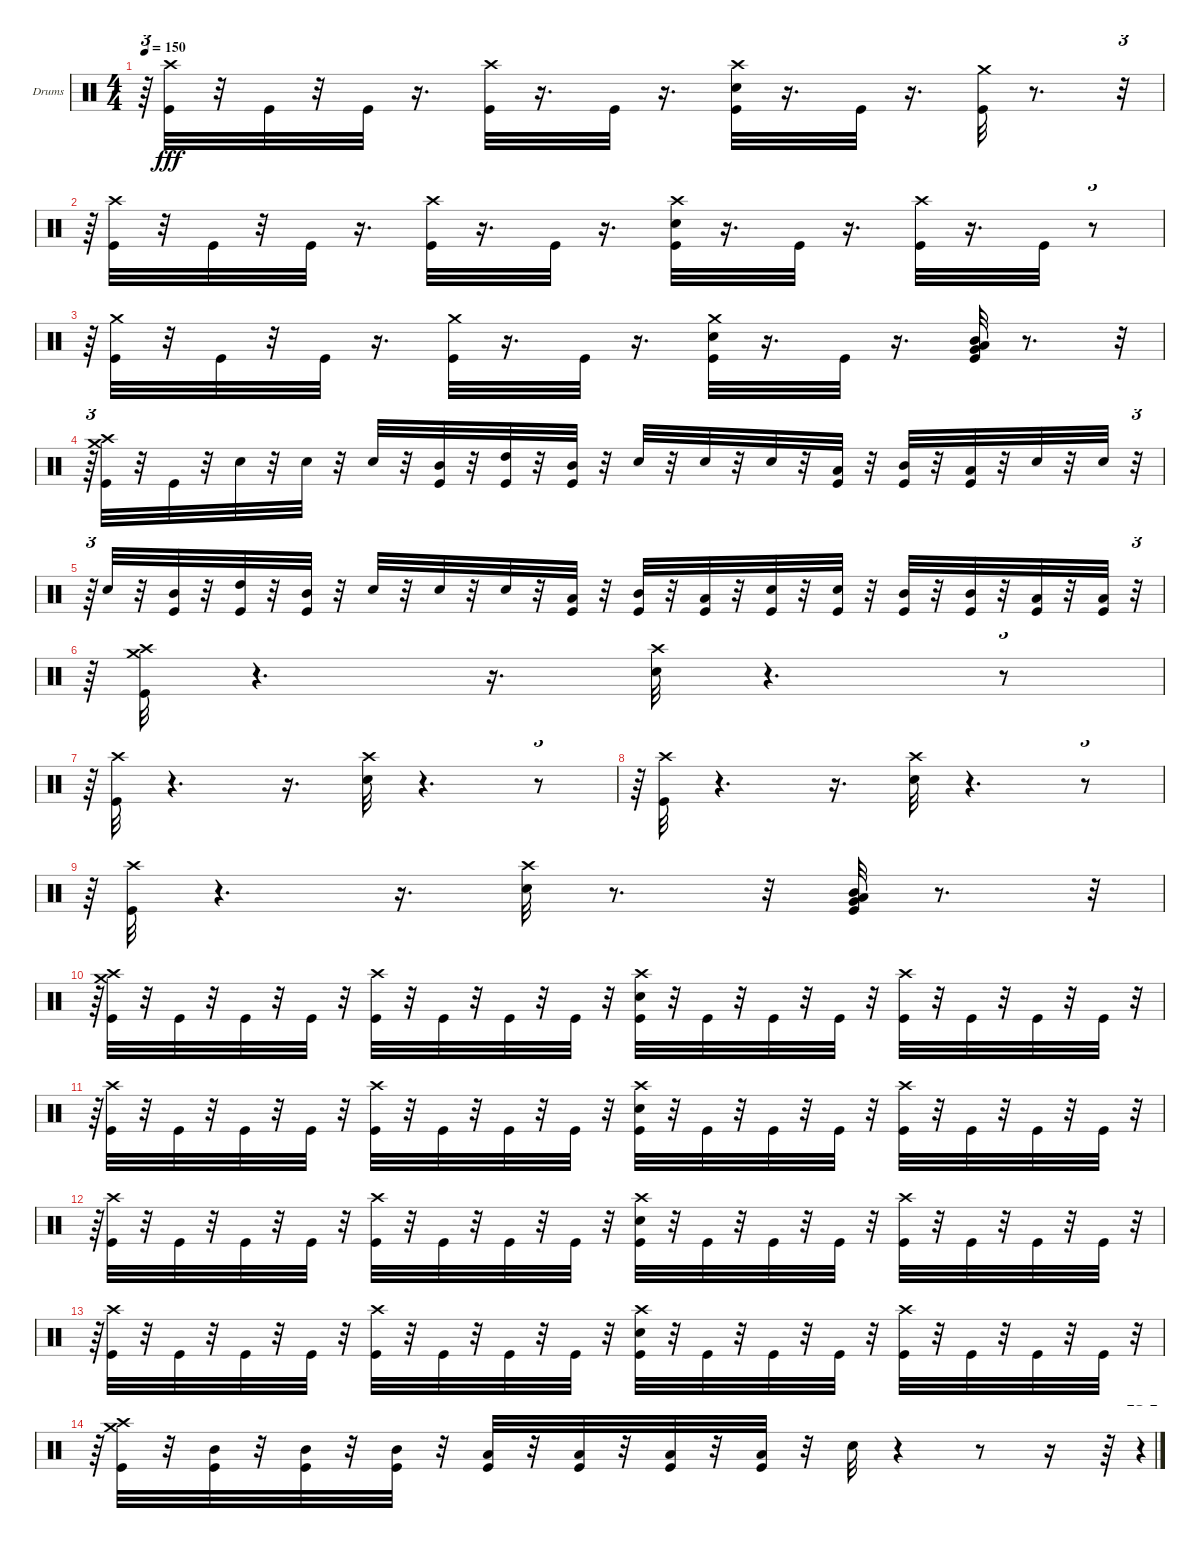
\bracketExtendMode groupsimilarinstruments
\firstSystemTrackNameOrientation horizontal
\otherSystemsTrackNameOrientation horizontal
\track ("Dave McClain" "Drums") {mute instrument percussion}
\staff {score}
\articulation defaults
\ts (4 4)
\tempo 150
\clef neutral
\ks c
r.64{tu (3 2) dy fff} ("Crash high (hit)" "Kick (hit)").32 r.32 "Kick (hit)".32 r.32 "Kick (hit)".32 r.16{d} ("Crash high (hit)" "Kick (hit)").32 r.16{d} "Kick (hit)".32 r.16{d} ("Snare (hit) 2" "Crash high (hit)" "Kick (hit)").32 r.16{d} "Kick (hit)".32 r.16{d} ("Crash medium (hit)" "Kick (hit)").32 r.8{d} r.32{tu (3 2)} |
r.64{tu (3 2)} ("Crash high (hit)" "Kick (hit)").32 r.32 "Kick (hit)".32 r.32 "Kick (hit)".32 r.16{d} ("Kick (hit)" "Crash high (hit)").32 r.16{d} "Kick (hit)".32 r.16{d} ("Snare (hit) 2" "Kick (hit)" "Crash high (hit)").32 r.16{d} "Kick (hit)".32 r.16{d} ("Crash high (hit)" "Kick (hit)").32 r.16{d} "Kick (hit)".32 r.8{tu (3 2)} |
r.64{tu (3 2)} ("Crash medium (hit)" "Kick (hit)").32 r.32 "Kick (hit)".32 r.32 "Kick (hit)".32 r.16{d} ("Crash medium (hit)" "Kick (hit)").32 r.16{d} "Kick (hit)".32 r.16{d} ("Crash medium (hit)" "Snare (hit) 2" "Kick (hit)").32 r.16{d} "Kick (hit)".32 r.16{d} ("Very Low Tom (hit)" "Low Tom (hit)" "Mid Tom (hit)" "Kick (hit)").32 r.8{d} r.32{tu (3 2)} |
r.64{tu (3 2)} ("Crash high (hit)" "Crash medium (hit)" "Kick (hit)").32 r.32 "Kick (hit)".32 r.32 "Snare (hit) 2".32 r.32 "Snare (hit) 2".32 r.32 "Snare (hit) 2".32 r.32 ("Mid Tom (hit)" "Kick (hit)").32 r.32 ("High Tom (hit)" "Kick (hit)").32 r.32 ("Mid Tom (hit)" "Kick (hit)").32 r.32 "Snare (hit) 2".32 r.32 "Snare (hit) 2".32 r.32 "Snare (hit) 2".32 r.32 ("Low Tom (hit)" "Kick (hit)").32 r.32 ("Mid Tom (hit)" "Kick (hit)").32 r.32 ("Low Tom (hit)" "Kick (hit)").32 r.32 "Snare (hit) 2".32 r.32 "Snare (hit) 2".32 r.32{tu (3 2)} |
r.64{tu (3 2)} "Snare (hit) 2".32 r.32 ("Mid Tom (hit)" "Kick (hit)").32 r.32 ("High Tom (hit)" "Kick (hit)").32 r.32 ("Mid Tom (hit)" "Kick (hit)").32 r.32 "Snare (hit) 2".32 r.32 "Snare (hit) 2".32 r.32 "Snare (hit) 2".32 r.32 ("Low Tom (hit)" "Kick (hit)").32 r.32 ("Mid Tom (hit)" "Kick (hit)").32 r.32 ("Low Tom (hit)" "Kick (hit)").32 r.32 ("Kick (hit)" "Snare (hit) 2").32 r.32 ("Kick (hit)" "Snare (hit) 2").32 r.32 ("Mid Tom (hit)" "Kick (hit)").32 r.32 ("Mid Tom (hit)" "Kick (hit)").32 r.32 ("Low Tom (hit)" "Kick (hit)").32 r.32 ("Low Tom (hit)" "Kick (hit)").32 r.32{tu (3 2)} |
r.64{tu (3 2)} ("Crash high (hit)" "Crash medium (hit)" "Kick (hit)").32 r.4{d} r.16{d} ("Snare (hit) 2" "Crash high (hit)").32 r.4{d} r.8{tu (3 2)} |
r.64{tu (3 2)} ("Crash high (hit)" "Kick (hit)").32 r.4{d} r.16{d} ("Snare (hit) 2" "Crash high (hit)").32 r.4{d} r.8{tu (3 2)} |
r.64{tu (3 2)} ("Crash high (hit)" "Kick (hit)").32 r.4{d} r.16{d} ("Snare (hit) 2" "Crash high (hit)").32 r.4{d} r.8{tu (3 2)} |
r.64{tu (3 2)} ("Crash high (hit)" "Kick (hit)").32 r.4{d} r.16{d} ("Snare (hit) 2" "Crash high (hit)").32 r.8{d} r.32 ("Mid Tom (hit)" "Low Tom (hit)" "Very Low Tom (hit)" "Kick (hit)").32 r.8{d} r.32{tu (3 2)} |
r.64{tu (3 2)} ("Crash high (hit)" "Crash medium (hit)" "Kick (hit)").32 r.32 "Kick (hit)".32 r.32 "Kick (hit)".32 r.32 "Kick (hit)".32 r.32 ("Crash high (hit)" "Kick (hit)").32 r.32 "Kick (hit)".32 r.32 "Kick (hit)".32 r.32 "Kick (hit)".32 r.32 ("Kick (hit)" "Snare (hit) 2" "Crash high (hit)").32 r.32 "Kick (hit)".32 r.32 "Kick (hit)".32 r.32 "Kick (hit)".32 r.32 ("Crash high (hit)" "Kick (hit)").32 r.32 "Kick (hit)".32 r.32 "Kick (hit)".32 r.32 "Kick (hit)".32 r.32{tu (3 2)} |
r.64{tu (3 2)} ("Crash high (hit)" "Kick (hit)").32 r.32 "Kick (hit)".32 r.32 "Kick (hit)".32 r.32 "Kick (hit)".32 r.32 ("Crash high (hit)" "Kick (hit)").32 r.32 "Kick (hit)".32 r.32 "Kick (hit)".32 r.32 "Kick (hit)".32 r.32 ("Kick (hit)" "Snare (hit) 2" "Crash high (hit)").32 r.32 "Kick (hit)".32 r.32 "Kick (hit)".32 r.32 "Kick (hit)".32 r.32 ("Crash high (hit)" "Kick (hit)").32 r.32 "Kick (hit)".32 r.32 "Kick (hit)".32 r.32 "Kick (hit)".32 r.32{tu (3 2)} |
r.64{tu (3 2)} ("Crash high (hit)" "Kick (hit)").32 r.32 "Kick (hit)".32 r.32 "Kick (hit)".32 r.32 "Kick (hit)".32 r.32 ("Crash high (hit)" "Kick (hit)").32 r.32 "Kick (hit)".32 r.32 "Kick (hit)".32 r.32 "Kick (hit)".32 r.32 ("Kick (hit)" "Snare (hit) 2" "Crash high (hit)").32 r.32 "Kick (hit)".32 r.32 "Kick (hit)".32 r.32 "Kick (hit)".32 r.32 ("Crash high (hit)" "Kick (hit)").32 r.32 "Kick (hit)".32 r.32 "Kick (hit)".32 r.32 "Kick (hit)".32 r.32{tu (3 2)} |
r.64{tu (3 2)} ("Crash high (hit)" "Kick (hit)").32 r.32 "Kick (hit)".32 r.32 "Kick (hit)".32 r.32 "Kick (hit)".32 r.32 ("Crash high (hit)" "Kick (hit)").32 r.32 "Kick (hit)".32 r.32 "Kick (hit)".32 r.32 "Kick (hit)".32 r.32 ("Kick (hit)" "Snare (hit) 2" "Crash high (hit)").32 r.32 "Kick (hit)".32 r.32 "Kick (hit)".32 r.32 "Kick (hit)".32 r.32 ("Crash high (hit)" "Kick (hit)").32 r.32 "Kick (hit)".32 r.32 "Kick (hit)".32 r.32 "Kick (hit)".32 r.32{tu (3 2)} |
r.64{tu (3 2)} ("Kick (hit)" "Crash high (hit)" "Crash medium (hit)").32 r.32 ("Mid Tom (hit)" "Kick (hit)").32 r.32 ("Mid Tom (hit)" "Kick (hit)").32 r.32 ("Mid Tom (hit)" "Kick (hit)").32 r.32 ("Low Tom (hit)" "Kick (hit)").32 r.32 ("Low Tom (hit)" "Kick (hit)").32 r.32 ("Low Tom (hit)" "Kick (hit)").32 r.32 ("Low Tom (hit)" "Kick (hit)").32 r.32 "Snare (hit) 2".32 r.4 r.8 r.16 r.64 r.4{tu (48 1)}
